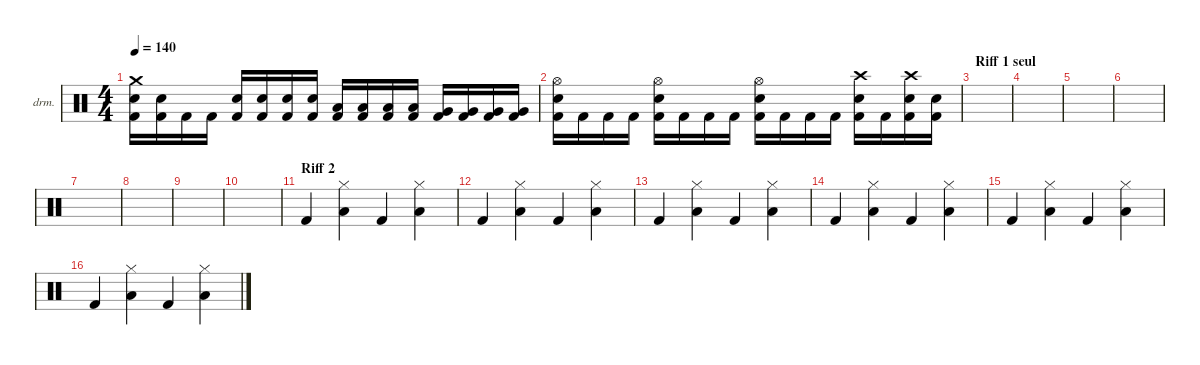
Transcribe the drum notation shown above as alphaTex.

\defaultSystemsLayout 4
\hideDynamics
\bracketExtendMode nobrackets
\firstSystemTrackNameOrientation horizontal
\otherSystemsTrackNameOrientation horizontal
\track ("Drumkit" "drm.") {instrument percussion}
\staff {score}
\articulation defaults
\ts (4 4)
\tempo 140
\clef neutral
\ks c
("Crash medium (hit)" "Snare (hit) 2" "Kick (hit) 2").16{dy mf} ("Snare (hit) 2" "Kick (hit) 2").16 "Kick (hit) 2".16 "Kick (hit) 2".16 ("Snare (hit) 2" "Kick (hit) 2").16 ("Snare (hit) 2" "Kick (hit) 2").16 ("Snare (hit) 2" "Kick (hit) 2").16 ("Snare (hit) 2" "Kick (hit) 2").16 ("Low Tom (hit)" "Kick (hit) 2").16 ("Low Tom (hit)" "Kick (hit) 2").16 ("Low Tom (hit)" "Kick (hit) 2").16 ("Low Tom (hit)" "Kick (hit) 2").16 ("Very Low Tom (hit)" "Kick (hit) 2").16 ("Very Low Tom (hit)" "Kick (hit) 2").16 ("Very Low Tom (hit)" "Kick (hit) 2").16 ("Very Low Tom (hit)" "Kick (hit) 2").16 |
("Hi-Hat (open)" "Snare (hit) 2" "Kick (hit) 2").16 "Kick (hit) 2".16 "Kick (hit) 2".16 "Kick (hit) 2".16 ("Hi-Hat (open)" "Snare (hit) 2" "Kick (hit) 2").16 "Kick (hit) 2".16 "Kick (hit) 2".16 "Kick (hit) 2".16 ("Hi-Hat (open)" "Snare (hit) 2" "Kick (hit) 2").16 "Kick (hit) 2".16 "Kick (hit) 2".16 "Kick (hit) 2".16 ("Crash high (hit)" "Snare (hit) 2" "Kick (hit) 2").16 "Kick (hit) 2".16 ("Crash high (hit)" "Snare (hit) 2" "Kick (hit) 2").16 ("Snare (hit) 2" "Kick (hit) 2").16 |
\section ("" "Riff 1 seul")
|
|
|
|
|
|
|
|
\section ("" "Riff 2")
"Kick (hit) 2".4{dy ff} ("Hi-Hat (closed)" "Low Tom (hit)").4{dy mf} "Kick (hit) 2".4 ("Hi-Hat (closed)" "Low Tom (hit)").4 |
"Kick (hit) 2".4 ("Hi-Hat (closed)" "Low Tom (hit)").4 "Kick (hit) 2".4 ("Hi-Hat (closed)" "Low Tom (hit)").4 |
"Kick (hit) 2".4 ("Hi-Hat (closed)" "Low Tom (hit)").4 "Kick (hit) 2".4 ("Hi-Hat (closed)" "Low Tom (hit)").4 |
"Kick (hit) 2".4 ("Hi-Hat (closed)" "Low Tom (hit)").4 "Kick (hit) 2".4 ("Hi-Hat (closed)" "Low Tom (hit)").4 |
"Kick (hit) 2".4 ("Hi-Hat (closed)" "Low Tom (hit)").4 "Kick (hit) 2".4 ("Hi-Hat (closed)" "Low Tom (hit)").4 |
"Kick (hit) 2".4 ("Hi-Hat (closed)" "Low Tom (hit)").4 "Kick (hit) 2".4 ("Hi-Hat (closed)" "Low Tom (hit)").4
